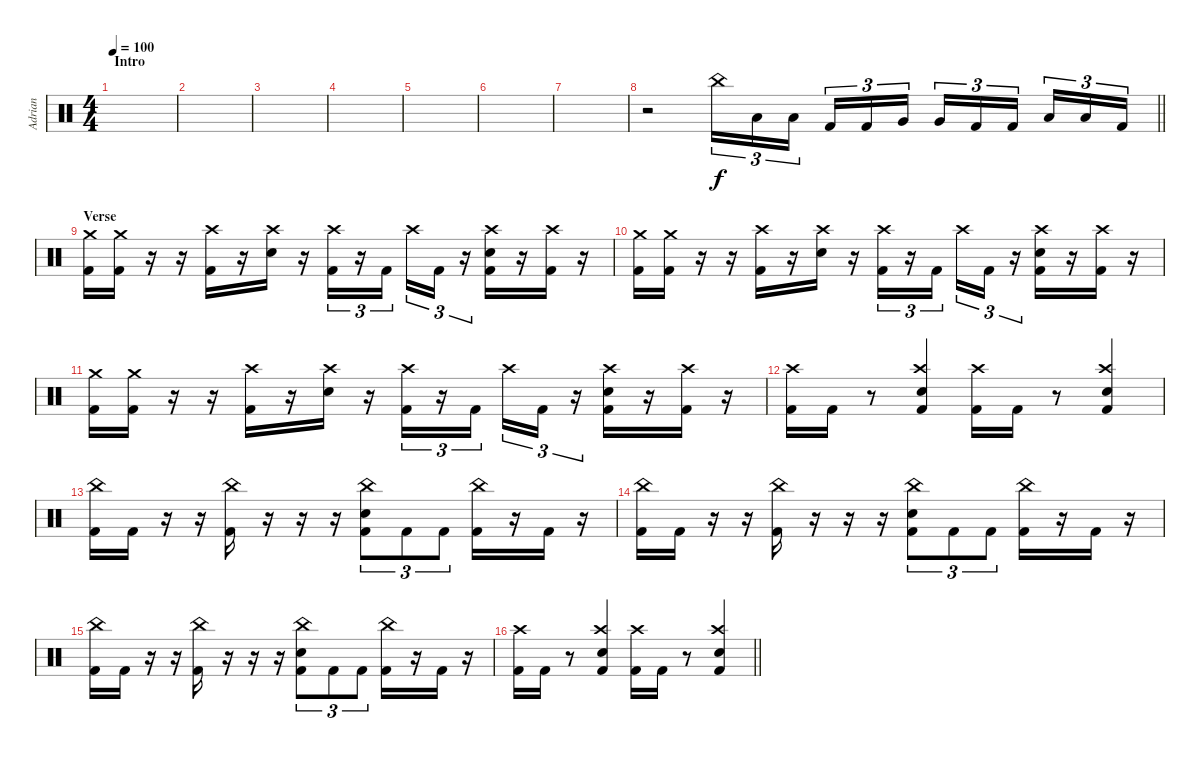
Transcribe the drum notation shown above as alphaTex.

\track ("Adrian" "Adrian") {instrument percussion}
\staff {score}
\articulation defaults
\ts (4 4)
\section ("" "Intro")
\tempo 100
\clef neutral
\ks c
|
|
|
|
|
|
|
\barLineRight lightlight
r.2 "China (hit)".16{tu (3 2)} "Low Tom (hit)".16{tu (3 2)} "Low Tom (hit)".16{tu (3 2) beam splitsecondary} "Kick (hit) 2".16{tu (3 2)} "Kick (hit) 2".16{tu (3 2)} "Very Low Tom (hit)".16{tu (3 2)} "Very Low Tom (hit)".16{tu (3 2)} "Kick (hit) 2".16{tu (3 2)} "Kick (hit) 2".16{tu (3 2) beam splitsecondary} "Low Floor Tom (hit)".16{tu (3 2)} "Low Floor Tom (hit)".16{tu (3 2)} "Kick (hit) 2".16{tu (3 2)} |
\section ("" "Verse")
("Crash medium (hit)" "Kick (hit) 2").16 ("Crash medium (hit)" "Kick (hit) 2").16 r.16 r.16 ("Crash high (hit)" "Kick (hit) 2").16 r.16 ("Crash high (hit)" "Snare (hit) 2").16 r.16 ("Crash high (hit)" "Kick (hit) 2").16{tu (3 2)} r.16{tu (3 2)} "Kick (hit) 2".16{tu (3 2) beam splitsecondary} "Crash high (hit)".16{tu (3 2)} "Kick (hit) 2".16{tu (3 2)} r.16{tu (3 2)} ("Crash high (hit)" "Snare (hit) 2" "Kick (hit) 2").16 r.16 ("Crash high (hit)" "Kick (hit) 2").16 r.16 |
("Crash medium (hit)" "Kick (hit) 2").16 ("Crash medium (hit)" "Kick (hit) 2").16 r.16 r.16 ("Crash high (hit)" "Kick (hit) 2").16 r.16 ("Crash high (hit)" "Snare (hit) 2").16 r.16 ("Crash high (hit)" "Kick (hit) 2").16{tu (3 2)} r.16{tu (3 2)} "Kick (hit) 2".16{tu (3 2) beam splitsecondary} "Crash high (hit)".16{tu (3 2)} "Kick (hit) 2".16{tu (3 2)} r.16{tu (3 2)} ("Crash high (hit)" "Snare (hit) 2" "Kick (hit) 2").16 r.16 ("Crash high (hit)" "Kick (hit) 2").16 r.16 |
("Crash medium (hit)" "Kick (hit) 2").16 ("Crash medium (hit)" "Kick (hit) 2").16 r.16 r.16 ("Crash high (hit)" "Kick (hit) 2").16 r.16 ("Crash high (hit)" "Snare (hit) 2").16 r.16 ("Crash high (hit)" "Kick (hit) 2").16{tu (3 2)} r.16{tu (3 2)} "Kick (hit) 2".16{tu (3 2) beam splitsecondary} "Crash high (hit)".16{tu (3 2)} "Kick (hit) 2".16{tu (3 2)} r.16{tu (3 2)} ("Crash high (hit)" "Snare (hit) 2" "Kick (hit) 2").16 r.16 ("Crash high (hit)" "Kick (hit) 2").16 r.16 |
("Crash high (hit)" "Kick (hit) 2").16 "Kick (hit) 2".16 r.8 ("Crash high (hit)" "Snare (hit) 2" "Kick (hit) 2").4 ("Crash high (hit)" "Kick (hit) 2").16 "Kick (hit) 2".16 r.8 ("Crash high (hit)" "Snare (hit) 2" "Kick (hit) 2").4 |
("China (hit)" "Kick (hit) 2").16 "Kick (hit) 2".16 r.16 r.16 ("China (hit)" "Kick (hit) 2").16 r.16 r.16 r.16 ("China (hit)" "Snare (hit) 2" "Kick (hit) 2").8{tu (3 2)} "Kick (hit) 2".8{tu (3 2)} "Kick (hit) 2".8{tu (3 2)} ("China (hit)" "Kick (hit) 2").16 r.16 "Kick (hit) 2".16 r.16 |
("China (hit)" "Kick (hit) 2").16 "Kick (hit) 2".16 r.16 r.16 ("China (hit)" "Kick (hit) 2").16 r.16 r.16 r.16 ("China (hit)" "Snare (hit) 2" "Kick (hit) 2").8{tu (3 2)} "Kick (hit) 2".8{tu (3 2)} "Kick (hit) 2".8{tu (3 2)} ("China (hit)" "Kick (hit) 2").16 r.16 "Kick (hit) 2".16 r.16 |
("China (hit)" "Kick (hit) 2").16 "Kick (hit) 2".16 r.16 r.16 ("China (hit)" "Kick (hit) 2").16 r.16 r.16 r.16 ("China (hit)" "Snare (hit) 2" "Kick (hit) 2").8{tu (3 2)} "Kick (hit) 2".8{tu (3 2)} "Kick (hit) 2".8{tu (3 2)} ("China (hit)" "Kick (hit) 2").16 r.16 "Kick (hit) 2".16 r.16 |
\barLineRight lightlight
("Crash high (hit)" "Kick (hit) 2").16 "Kick (hit) 2".16 r.8 ("Crash high (hit)" "Snare (hit) 2" "Kick (hit) 2").4 ("Crash high (hit)" "Kick (hit) 2").16 "Kick (hit) 2".16 r.8 ("Crash high (hit)" "Snare (hit) 2" "Kick (hit) 2").4
